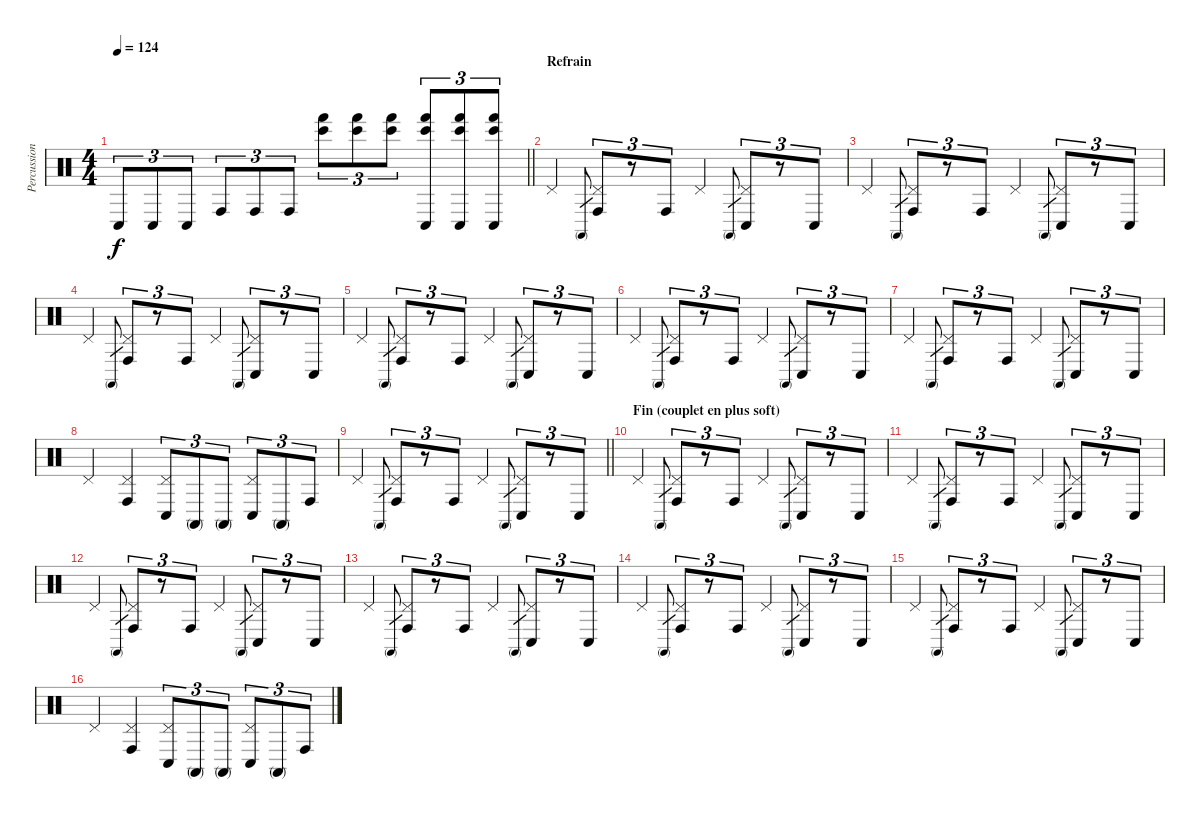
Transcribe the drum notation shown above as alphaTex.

\track ("Percussions" "Percussion") {instrument percussion}
\staff {score}
\articulation defaults
\ts (4 4)
\tempo 124
\clef neutral
\barLineRight lightlight
\ks c "Conga low (hit)".8{tu (3 2) dy f} "Conga low (hit)".8{tu (3 2)} "Conga low (hit)".8{tu (3 2)} "Conga high (hit)".8{tu (3 2)} "Conga high (hit)".8{tu (3 2)} "Conga high (hit)".8{tu (3 2)}
("Hand (hit)" "Bongo High (hit)").8{tu (3 2)} ("Hand (hit)" "Bongo High (hit)").8{tu (3 2)} ("Hand (hit)" "Bongo High (hit)").8{tu (3 2)} ("Conga low (hit)" "Hand (hit)" "Bongo High (hit)").8{tu (3 2)} ("Conga low (hit)" "Hand (hit)" "Bongo High (hit)").8{tu (3 2)} ("Conga low (hit)" "Hand (hit)" "Bongo High (hit)").8{tu (3 2)} |
\section ("" "Refrain")
"Pedal Hi-Hat (hit)".4 "Conga high (mute)".8{gr} ("Pedal Hi-Hat (hit)" "Conga high (hit)").8{tu (3 2)} r.8{tu (3 2)} "Conga high (hit)".8{tu (3 2)} "Pedal Hi-Hat (hit)".4 "Conga high (mute)".8{gr} ("Pedal Hi-Hat (hit)" "Conga low (hit)").8{tu (3 2)} r.8{tu (3 2)} "Conga low (hit)".8{tu (3 2)} |
"Pedal Hi-Hat (hit)".4 "Conga high (mute)".8{gr} ("Pedal Hi-Hat (hit)" "Conga high (hit)").8{tu (3 2)} r.8{tu (3 2)} "Conga high (hit)".8{tu (3 2)} "Pedal Hi-Hat (hit)".4 "Conga high (mute)".8{gr} ("Pedal Hi-Hat (hit)" "Conga low (hit)").8{tu (3 2)} r.8{tu (3 2)} "Conga low (hit)".8{tu (3 2)} |
"Pedal Hi-Hat (hit)".4 "Conga high (mute)".8{gr} ("Pedal Hi-Hat (hit)" "Conga high (hit)").8{tu (3 2)} r.8{tu (3 2)} "Conga high (hit)".8{tu (3 2)} "Pedal Hi-Hat (hit)".4 "Conga high (mute)".8{gr} ("Pedal Hi-Hat (hit)" "Conga low (hit)").8{tu (3 2)} r.8{tu (3 2)} "Conga low (hit)".8{tu (3 2)} |
"Pedal Hi-Hat (hit)".4 "Conga high (mute)".8{gr} ("Pedal Hi-Hat (hit)" "Conga high (hit)").8{tu (3 2)} r.8{tu (3 2)} "Conga high (hit)".8{tu (3 2)} "Pedal Hi-Hat (hit)".4 "Conga high (mute)".8{gr} ("Pedal Hi-Hat (hit)" "Conga low (hit)").8{tu (3 2)} r.8{tu (3 2)} "Conga low (hit)".8{tu (3 2)} |
"Pedal Hi-Hat (hit)".4 "Conga high (mute)".8{gr} ("Pedal Hi-Hat (hit)" "Conga high (hit)").8{tu (3 2)} r.8{tu (3 2)} "Conga high (hit)".8{tu (3 2)} "Pedal Hi-Hat (hit)".4 "Conga high (mute)".8{gr} ("Pedal Hi-Hat (hit)" "Conga low (hit)").8{tu (3 2)} r.8{tu (3 2)} "Conga low (hit)".8{tu (3 2)} |
"Pedal Hi-Hat (hit)".4 "Conga high (mute)".8{gr} ("Pedal Hi-Hat (hit)" "Conga high (hit)").8{tu (3 2)} r.8{tu (3 2)} "Conga high (hit)".8{tu (3 2)} "Pedal Hi-Hat (hit)".4 "Conga high (mute)".8{gr} ("Pedal Hi-Hat (hit)" "Conga low (hit)").8{tu (3 2)} r.8{tu (3 2)} "Conga low (hit)".8{tu (3 2)} |
"Pedal Hi-Hat (hit)".4 ("Pedal Hi-Hat (hit)" "Conga high (hit)").4 ("Pedal Hi-Hat (hit)" "Conga low (hit)").8{tu (3 2)} "Conga high (mute)".8{tu (3 2)} "Conga high (mute)".8{tu (3 2)} ("Pedal Hi-Hat (hit)" "Conga low (hit)").8{tu (3 2)} "Conga high (mute)".8{tu (3 2)} "Conga high (hit)".8{tu (3 2)} |
\barLineRight lightlight "Pedal Hi-Hat (hit)".4 "Conga high (mute)".8{gr}
("Pedal Hi-Hat (hit)" "Conga high (hit)").8{tu (3 2)} r.8{tu (3 2)} "Conga high (hit)".8{tu (3 2)} "Pedal Hi-Hat (hit)".4 "Conga high (mute)".8{gr} ("Pedal Hi-Hat (hit)" "Conga low (hit)").8{tu (3 2)} r.8{tu (3 2)} "Conga low (hit)".8{tu (3 2)} |
\section ("" "Fin (couplet en plus soft)")
"Pedal Hi-Hat (hit)".4 "Conga high (mute)".8{gr} ("Pedal Hi-Hat (hit)" "Conga high (hit)").8{tu (3 2)} r.8{tu (3 2)} "Conga high (hit)".8{tu (3 2)} "Pedal Hi-Hat (hit)".4 "Conga high (mute)".8{gr} ("Pedal Hi-Hat (hit)" "Conga low (hit)").8{tu (3 2)} r.8{tu (3 2)} "Conga low (hit)".8{tu (3 2)} |
"Pedal Hi-Hat (hit)".4 "Conga high (mute)".8{gr} ("Pedal Hi-Hat (hit)" "Conga high (hit)").8{tu (3 2)} r.8{tu (3 2)} "Conga high (hit)".8{tu (3 2)} "Pedal Hi-Hat (hit)".4 "Conga high (mute)".8{gr} ("Pedal Hi-Hat (hit)" "Conga low (hit)").8{tu (3 2)} r.8{tu (3 2)} "Conga low (hit)".8{tu (3 2)} |
"Pedal Hi-Hat (hit)".4 "Conga high (mute)".8{gr} ("Pedal Hi-Hat (hit)" "Conga high (hit)").8{tu (3 2)} r.8{tu (3 2)} "Conga high (hit)".8{tu (3 2)} "Pedal Hi-Hat (hit)".4 "Conga high (mute)".8{gr} ("Pedal Hi-Hat (hit)" "Conga low (hit)").8{tu (3 2)} r.8{tu (3 2)} "Conga low (hit)".8{tu (3 2)} |
"Pedal Hi-Hat (hit)".4 "Conga high (mute)".8{gr} ("Pedal Hi-Hat (hit)" "Conga high (hit)").8{tu (3 2)} r.8{tu (3 2)} "Conga high (hit)".8{tu (3 2)} "Pedal Hi-Hat (hit)".4 "Conga high (mute)".8{gr} ("Pedal Hi-Hat (hit)" "Conga low (hit)").8{tu (3 2)} r.8{tu (3 2)} "Conga low (hit)".8{tu (3 2)} |
"Pedal Hi-Hat (hit)".4 "Conga high (mute)".8{gr} ("Pedal Hi-Hat (hit)" "Conga high (hit)").8{tu (3 2)} r.8{tu (3 2)} "Conga high (hit)".8{tu (3 2)} "Pedal Hi-Hat (hit)".4 "Conga high (mute)".8{gr} ("Pedal Hi-Hat (hit)" "Conga low (hit)").8{tu (3 2)} r.8{tu (3 2)} "Conga low (hit)".8{tu (3 2)} |
"Pedal Hi-Hat (hit)".4 "Conga high (mute)".8{gr} ("Pedal Hi-Hat (hit)" "Conga high (hit)").8{tu (3 2)} r.8{tu (3 2)} "Conga high (hit)".8{tu (3 2)} "Pedal Hi-Hat (hit)".4 "Conga high (mute)".8{gr} ("Pedal Hi-Hat (hit)" "Conga low (hit)").8{tu (3 2)} r.8{tu (3 2)} "Conga low (hit)".8{tu (3 2)} |
"Pedal Hi-Hat (hit)".4 ("Pedal Hi-Hat (hit)" "Conga high (hit)").4 ("Pedal Hi-Hat (hit)" "Conga low (hit)").8{tu (3 2)} "Conga high (mute)".8{tu (3 2)} "Conga high (mute)".8{tu (3 2)} ("Pedal Hi-Hat (hit)" "Conga low (hit)").8{tu (3 2)} "Conga high (mute)".8{tu (3 2)} "Conga high (hit)".8{tu (3 2)}
